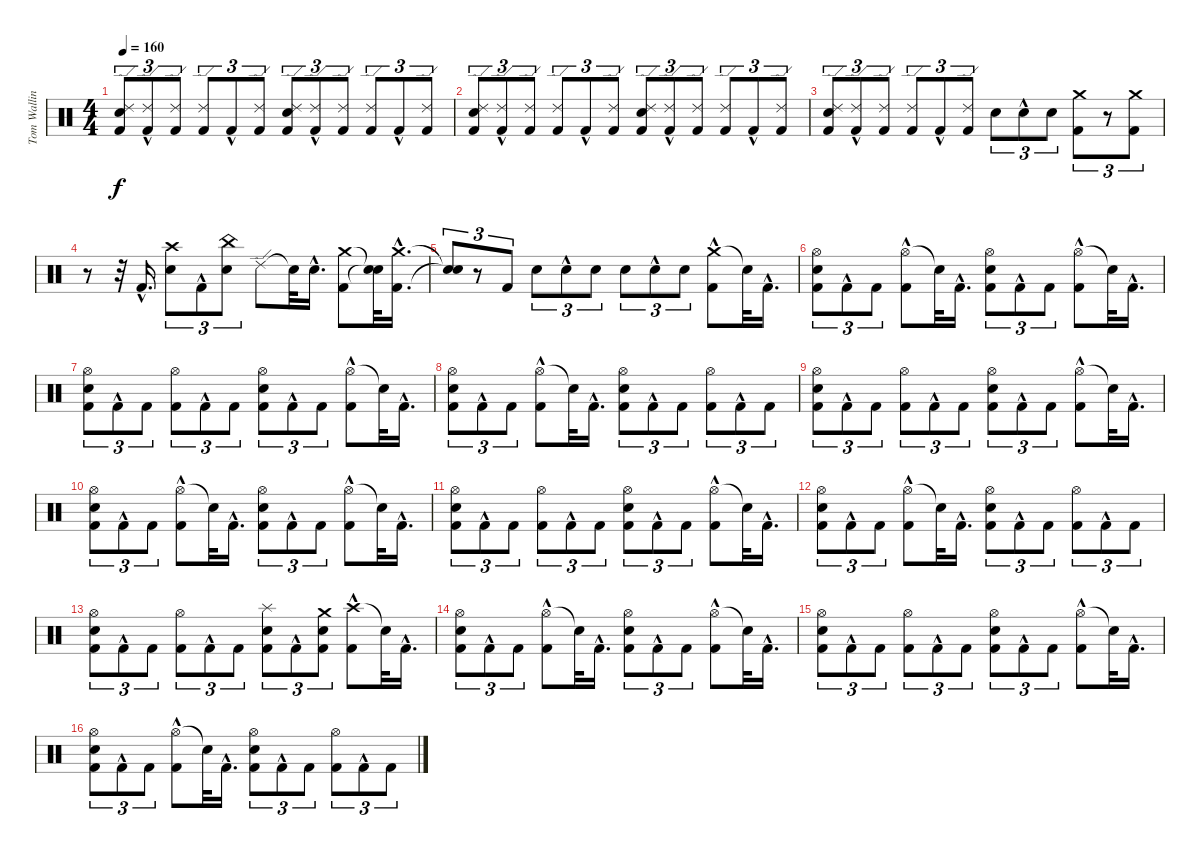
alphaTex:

\track ("Tom Walling (Drums)" "Tom Wallin") {instrument percussion}
\staff {score}
\articulation defaults
\ts (4 4)
\tempo 160
\clef neutral
\ks c
("Ride (edge) 2" "Electric Snare (hit)" "Kick (hit) 2").8{tu (3 2) dy f} ("Ride (edge) 2"{hac} "Kick (hit) 2"{hac}).8{tu (3 2)} ("Ride (edge) 2" "Kick (hit) 2").8{tu (3 2)} ("Ride (edge) 2" "Kick (hit) 2").8{tu (3 2)} "Kick (hit) 2"{hac}.8{tu (3 2)} ("Ride (edge) 2" "Kick (hit) 2").8{tu (3 2)} ("Ride (edge) 2" "Electric Snare (hit)" "Kick (hit) 2").8{tu (3 2)} ("Ride (edge) 2"{hac} "Kick (hit) 2"{hac}).8{tu (3 2)} ("Ride (edge) 2" "Kick (hit) 2").8{tu (3 2)} ("Ride (edge) 2" "Kick (hit) 2").8{tu (3 2)} "Kick (hit) 2"{hac}.8{tu (3 2)} ("Ride (edge) 2" "Kick (hit) 2").8{tu (3 2)} |
("Ride (edge) 2" "Electric Snare (hit)" "Kick (hit) 2").8{tu (3 2)} ("Ride (edge) 2"{hac} "Kick (hit) 2"{hac}).8{tu (3 2)} ("Ride (edge) 2" "Kick (hit) 2").8{tu (3 2)} ("Ride (edge) 2" "Kick (hit) 2").8{tu (3 2)} "Kick (hit) 2"{hac}.8{tu (3 2)} ("Ride (edge) 2" "Kick (hit) 2").8{tu (3 2)} ("Ride (edge) 2" "Electric Snare (hit)" "Kick (hit) 2").8{tu (3 2)} ("Ride (edge) 2"{hac} "Kick (hit) 2"{hac}).8{tu (3 2)} ("Ride (edge) 2" "Kick (hit) 2").8{tu (3 2)} ("Ride (edge) 2" "Kick (hit) 2").8{tu (3 2)} "Kick (hit) 2"{hac}.8{tu (3 2)} ("Ride (edge) 2" "Kick (hit) 2").8{tu (3 2)} |
("Ride (edge) 2" "Electric Snare (hit)" "Kick (hit) 2").8{tu (3 2)} ("Ride (edge) 2"{hac} "Kick (hit) 2"{hac}).8{tu (3 2)} ("Ride (edge) 2" "Kick (hit) 2").8{tu (3 2)} ("Ride (edge) 2" "Kick (hit) 2").8{tu (3 2)} "Kick (hit) 2"{hac}.8{tu (3 2)} ("Ride (edge) 2" "Kick (hit) 2").8{tu (3 2)} "Electric Snare (hit)".8{tu (3 2)} "Electric Snare (hit)"{hac}.8{tu (3 2)} "Electric Snare (hit)".8{tu (3 2)} ("Crash medium (hit)" "Kick (hit) 2").8{tu (3 2)} r.8{tu (3 2)} ("Crash medium (hit)" "Kick (hit) 2").8{tu (3 2)} |
r.8 r.32 "Kick (hit) 2"{hac}.16{d} ("Crash high (hit)" "Electric Snare (hit)").8{tu (3 2)} "Kick (hit) 2"{hac}.8{tu (3 2)} ("China (hit)" "Electric Snare (hit)").8{tu (3 2)} "Ride (edge) 2".8 "Snare (hit)"{t}.32 "Electric Snare (hit)"{hac}.16{d} ("Crash medium (hit)" "Kick (hit) 2").8 ("Snare (hit)"{t} "Snare (hit)"{t}).32 ("Crash medium (hit)"{hac} "Kick (hit) 2"{hac}).16{d} |
("Snare (hit)"{t} "Snare (hit)"{t}).8{tu (3 2)} r.8{tu (3 2)} "Kick (hit) 2".8{tu (3 2)} "Electric Snare (hit)".8{tu (3 2)} "Electric Snare (hit)"{hac}.8{tu (3 2)} "Electric Snare (hit)".8{tu (3 2)} "Electric Snare (hit)".8{tu (3 2)} "Electric Snare (hit)"{hac}.8{tu (3 2)} "Electric Snare (hit)".8{tu (3 2)} ("Crash medium (hit)" "Kick (hit) 2"{hac}).8 "Snare (hit)"{t}.32 "Kick (hit) 2"{hac}.16{d} |
("Hi-Hat (open)" "Electric Snare (hit)" "Kick (hit) 2").8{tu (3 2)} "Kick (hit) 2"{hac}.8{tu (3 2)} "Kick (hit) 2".8{tu (3 2)} ("Hi-Hat (open)" "Kick (hit) 2"{hac}).8 "Snare (hit)"{t}.32 "Kick (hit) 2"{hac}.16{d} ("Hi-Hat (open)" "Electric Snare (hit)" "Kick (hit) 2").8{tu (3 2)} "Kick (hit) 2"{hac}.8{tu (3 2)} "Kick (hit) 2".8{tu (3 2)} ("Hi-Hat (open)" "Kick (hit) 2"{hac}).8 "Snare (hit)"{t}.32 "Kick (hit) 2"{hac}.16{d} |
("Hi-Hat (open)" "Electric Snare (hit)" "Kick (hit) 2").8{tu (3 2)} "Kick (hit) 2"{hac}.8{tu (3 2)} "Kick (hit) 2".8{tu (3 2)} ("Hi-Hat (open)" "Kick (hit) 2").8{tu (3 2)} "Kick (hit) 2"{hac}.8{tu (3 2)} "Kick (hit) 2".8{tu (3 2)} ("Hi-Hat (open)" "Electric Snare (hit)" "Kick (hit) 2").8{tu (3 2)} "Kick (hit) 2"{hac}.8{tu (3 2)} "Kick (hit) 2".8{tu (3 2)} ("Hi-Hat (open)" "Kick (hit) 2"{hac}).8 "Snare (hit)"{t}.32 "Kick (hit) 2"{hac}.16{d} |
("Hi-Hat (open)" "Electric Snare (hit)" "Kick (hit) 2").8{tu (3 2)} "Kick (hit) 2"{hac}.8{tu (3 2)} "Kick (hit) 2".8{tu (3 2)} ("Hi-Hat (open)" "Kick (hit) 2"{hac}).8 "Snare (hit)"{t}.32 "Kick (hit) 2"{hac}.16{d} ("Hi-Hat (open)" "Electric Snare (hit)" "Kick (hit) 2").8{tu (3 2)} "Kick (hit) 2"{hac}.8{tu (3 2)} "Kick (hit) 2".8{tu (3 2)} ("Hi-Hat (open)" "Kick (hit) 2").8{tu (3 2)} "Kick (hit) 2"{hac}.8{tu (3 2)} "Kick (hit) 2".8{tu (3 2)} |
("Hi-Hat (open)" "Electric Snare (hit)" "Kick (hit) 2").8{tu (3 2)} "Kick (hit) 2"{hac}.8{tu (3 2)} "Kick (hit) 2".8{tu (3 2)} ("Hi-Hat (open)" "Kick (hit) 2").8{tu (3 2)} "Kick (hit) 2"{hac}.8{tu (3 2)} "Kick (hit) 2".8{tu (3 2)} ("Hi-Hat (open)" "Electric Snare (hit)" "Kick (hit) 2").8{tu (3 2)} "Kick (hit) 2"{hac}.8{tu (3 2)} "Kick (hit) 2".8{tu (3 2)} ("Hi-Hat (open)" "Kick (hit) 2"{hac}).8 "Snare (hit)"{t}.32 "Kick (hit) 2"{hac}.16{d} |
("Hi-Hat (open)" "Electric Snare (hit)" "Kick (hit) 2").8{tu (3 2)} "Kick (hit) 2"{hac}.8{tu (3 2)} "Kick (hit) 2".8{tu (3 2)} ("Hi-Hat (open)" "Kick (hit) 2"{hac}).8 "Snare (hit)"{t}.32 "Kick (hit) 2"{hac}.16{d} ("Hi-Hat (open)" "Electric Snare (hit)" "Kick (hit) 2").8{tu (3 2)} "Kick (hit) 2"{hac}.8{tu (3 2)} "Kick (hit) 2".8{tu (3 2)} ("Hi-Hat (open)" "Kick (hit) 2"{hac}).8 "Snare (hit)"{t}.32 "Kick (hit) 2"{hac}.16{d} |
("Hi-Hat (open)" "Electric Snare (hit)" "Kick (hit) 2").8{tu (3 2)} "Kick (hit) 2"{hac}.8{tu (3 2)} "Kick (hit) 2".8{tu (3 2)} ("Hi-Hat (open)" "Kick (hit) 2").8{tu (3 2)} "Kick (hit) 2"{hac}.8{tu (3 2)} "Kick (hit) 2".8{tu (3 2)} ("Hi-Hat (open)" "Electric Snare (hit)" "Kick (hit) 2").8{tu (3 2)} "Kick (hit) 2"{hac}.8{tu (3 2)} "Kick (hit) 2".8{tu (3 2)} ("Hi-Hat (open)" "Kick (hit) 2"{hac}).8 "Snare (hit)"{t}.32 "Kick (hit) 2"{hac}.16{d} |
("Hi-Hat (open)" "Electric Snare (hit)" "Kick (hit) 2").8{tu (3 2)} "Kick (hit) 2"{hac}.8{tu (3 2)} "Kick (hit) 2".8{tu (3 2)} ("Hi-Hat (open)" "Kick (hit) 2"{hac}).8 "Snare (hit)"{t}.32 "Kick (hit) 2"{hac}.16{d} ("Hi-Hat (open)" "Electric Snare (hit)" "Kick (hit) 2").8{tu (3 2)} "Kick (hit) 2"{hac}.8{tu (3 2)} "Kick (hit) 2".8{tu (3 2)} ("Hi-Hat (open)" "Kick (hit) 2").8{tu (3 2)} "Kick (hit) 2"{hac}.8{tu (3 2)} "Kick (hit) 2".8{tu (3 2)} |
("Hi-Hat (open)" "Electric Snare (hit)" "Kick (hit) 2").8{tu (3 2)} "Kick (hit) 2"{hac}.8{tu (3 2)} "Kick (hit) 2".8{tu (3 2)} ("Hi-Hat (open)" "Kick (hit) 2").8{tu (3 2)} "Kick (hit) 2"{hac}.8{tu (3 2)} "Kick (hit) 2".8{tu (3 2)} ("Kick (hit) 2" "Splash (hit)" "Electric Snare (hit)").8{tu (3 2)} "Kick (hit) 2"{hac}.8{tu (3 2)} ("Kick (hit) 2" "Crash medium (hit)" "Electric Snare (hit)").8{tu (3 2)} ("Crash high (hit)" "Kick (hit) 2"{hac}).8 "Snare (hit)"{t}.32 "Kick (hit) 2"{hac}.16{d} |
("Hi-Hat (open)" "Electric Snare (hit)" "Kick (hit) 2").8{tu (3 2)} "Kick (hit) 2"{hac}.8{tu (3 2)} "Kick (hit) 2".8{tu (3 2)} ("Hi-Hat (open)" "Kick (hit) 2"{hac}).8 "Snare (hit)"{t}.32 "Kick (hit) 2"{hac}.16{d} ("Hi-Hat (open)" "Electric Snare (hit)" "Kick (hit) 2").8{tu (3 2)} "Kick (hit) 2"{hac}.8{tu (3 2)} "Kick (hit) 2".8{tu (3 2)} ("Hi-Hat (open)" "Kick (hit) 2"{hac}).8 "Snare (hit)"{t}.32 "Kick (hit) 2"{hac}.16{d} |
("Hi-Hat (open)" "Electric Snare (hit)" "Kick (hit) 2").8{tu (3 2)} "Kick (hit) 2"{hac}.8{tu (3 2)} "Kick (hit) 2".8{tu (3 2)} ("Hi-Hat (open)" "Kick (hit) 2").8{tu (3 2)} "Kick (hit) 2"{hac}.8{tu (3 2)} "Kick (hit) 2".8{tu (3 2)} ("Hi-Hat (open)" "Electric Snare (hit)" "Kick (hit) 2").8{tu (3 2)} "Kick (hit) 2"{hac}.8{tu (3 2)} "Kick (hit) 2".8{tu (3 2)} ("Hi-Hat (open)" "Kick (hit) 2"{hac}).8 "Snare (hit)"{t}.32 "Kick (hit) 2"{hac}.16{d} |
("Hi-Hat (open)" "Electric Snare (hit)" "Kick (hit) 2").8{tu (3 2)} "Kick (hit) 2"{hac}.8{tu (3 2)} "Kick (hit) 2".8{tu (3 2)} ("Hi-Hat (open)" "Kick (hit) 2"{hac}).8 "Snare (hit)"{t}.32 "Kick (hit) 2"{hac}.16{d} ("Hi-Hat (open)" "Electric Snare (hit)" "Kick (hit) 2").8{tu (3 2)} "Kick (hit) 2"{hac}.8{tu (3 2)} "Kick (hit) 2".8{tu (3 2)} ("Hi-Hat (open)" "Kick (hit) 2").8{tu (3 2)} "Kick (hit) 2"{hac}.8{tu (3 2)} "Kick (hit) 2".8{tu (3 2)}
